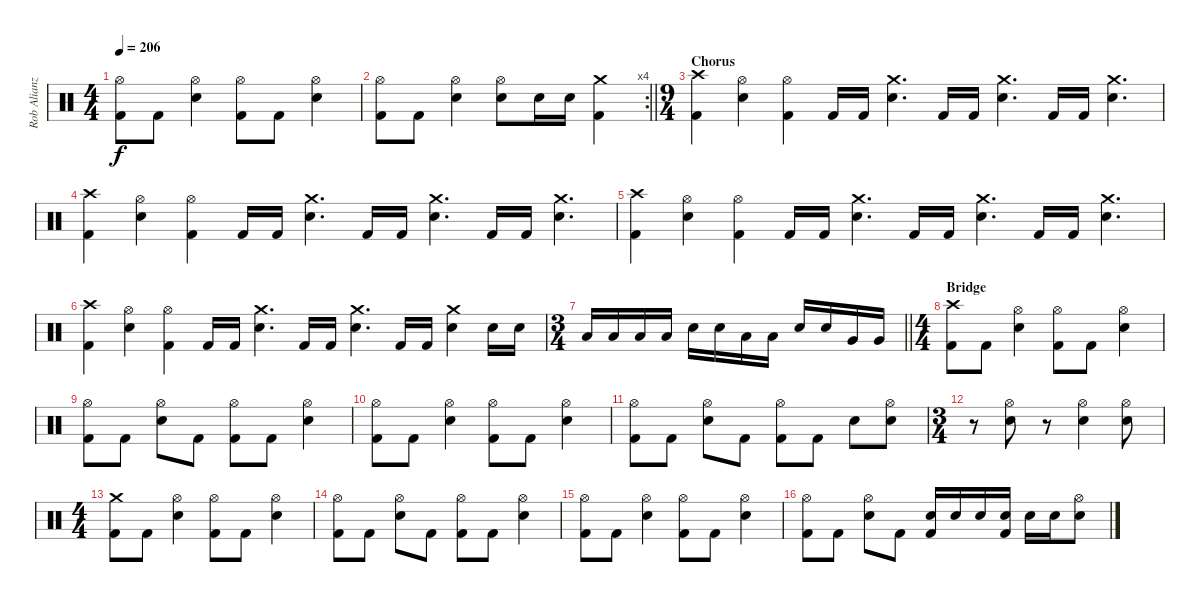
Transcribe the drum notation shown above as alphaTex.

\track ("Rob Alianz" "Rob Alianz") {instrument percussion}
\staff {score}
\articulation defaults
\ts (4 4)
\tempo 206
\clef neutral
\ks c
("Hi-Hat (open)" "Kick (hit) 2").8{dy f} "Kick (hit) 2".8 ("Hi-Hat (open)" "Electric Snare (hit)").4 ("Hi-Hat (open)" "Kick (hit) 2").8 "Kick (hit) 2".8 ("Hi-Hat (open)" "Electric Snare (hit)").4 |
\rc 4
\barLineRight lightlight
("Hi-Hat (open)" "Kick (hit) 2").8 "Kick (hit) 2".8 ("Hi-Hat (open)" "Electric Snare (hit)").4 ("Hi-Hat (open)" "Electric Snare (hit)").8 "Electric Snare (hit)".16 "Electric Snare (hit)".16 ("Crash medium (hit)" "Kick (hit) 2").4 |
\ts (9 4)
\section ("" "Chorus")
("Crash high (hit)" "Kick (hit) 2").4 ("Hi-Hat (open)" "Electric Snare (hit)").4 ("Hi-Hat (open)" "Kick (hit) 2").4 "Kick (hit) 2".16 "Kick (hit) 2".16 ("Crash medium (hit)" "Electric Snare (hit)").4{d} "Kick (hit) 2".16 "Kick (hit) 2".16 ("Crash medium (hit)" "Electric Snare (hit)").4{d} "Kick (hit) 2".16 "Kick (hit) 2".16 ("Crash medium (hit)" "Electric Snare (hit)").4{d} |
("Crash high (hit)" "Kick (hit) 2").4 ("Hi-Hat (open)" "Electric Snare (hit)").4 ("Hi-Hat (open)" "Kick (hit) 2").4 "Kick (hit) 2".16 "Kick (hit) 2".16 ("Crash medium (hit)" "Electric Snare (hit)").4{d} "Kick (hit) 2".16 "Kick (hit) 2".16 ("Crash medium (hit)" "Electric Snare (hit)").4{d} "Kick (hit) 2".16 "Kick (hit) 2".16 ("Crash medium (hit)" "Electric Snare (hit)").4{d} |
("Crash high (hit)" "Kick (hit) 2").4 ("Hi-Hat (open)" "Electric Snare (hit)").4 ("Hi-Hat (open)" "Kick (hit) 2").4 "Kick (hit) 2".16 "Kick (hit) 2".16 ("Crash medium (hit)" "Electric Snare (hit)").4{d} "Kick (hit) 2".16 "Kick (hit) 2".16 ("Crash medium (hit)" "Electric Snare (hit)").4{d} "Kick (hit) 2".16 "Kick (hit) 2".16 ("Crash medium (hit)" "Electric Snare (hit)").4{d} |
("Crash high (hit)" "Kick (hit) 2").4 ("Hi-Hat (open)" "Electric Snare (hit)").4 ("Hi-Hat (open)" "Kick (hit) 2").4 "Kick (hit) 2".16 "Kick (hit) 2".16 ("Crash medium (hit)" "Electric Snare (hit)").4{d} "Kick (hit) 2".16 "Kick (hit) 2".16 ("Crash medium (hit)" "Electric Snare (hit)").4{d} "Kick (hit) 2".16 "Kick (hit) 2".16 ("Crash medium (hit)" "Electric Snare (hit)").4 "Electric Snare (hit)".16 "Electric Snare (hit)".16 |
\ts (3 4)
\barLineRight lightlight "Low Tom (hit)".16 "Low Tom (hit)".16 "Low Tom (hit)".16 "Low Tom (hit)".16 "Electric Snare (hit)".16 "Electric Snare (hit)".16 "Low Tom (hit)".16 "Low Tom (hit)".16 "Electric Snare (hit)".16 "Electric Snare (hit)".16 "Very Low Tom (hit)".16 "Very Low Tom (hit)".16
|
\ts (4 4)
\section ("" "Bridge")
("Crash high (hit)" "Kick (hit) 2").8 "Kick (hit) 2".8 ("Hi-Hat (open)" "Electric Snare (hit)").4 ("Hi-Hat (open)" "Kick (hit) 2").8 "Kick (hit) 2".8 ("Hi-Hat (open)" "Electric Snare (hit)").4 |
("Hi-Hat (open)" "Kick (hit) 2").8 "Kick (hit) 2".8 ("Hi-Hat (open)" "Electric Snare (hit)").8 "Kick (hit) 2".8 ("Hi-Hat (open)" "Kick (hit) 2").8 "Kick (hit) 2".8 ("Hi-Hat (open)" "Electric Snare (hit)").4 |
("Hi-Hat (open)" "Kick (hit) 2").8 "Kick (hit) 2".8 ("Hi-Hat (open)" "Electric Snare (hit)").4 ("Hi-Hat (open)" "Kick (hit) 2").8 "Kick (hit) 2".8 ("Hi-Hat (open)" "Electric Snare (hit)").4 |
("Hi-Hat (open)" "Kick (hit) 2").8 "Kick (hit) 2".8 ("Hi-Hat (open)" "Electric Snare (hit)").8 "Kick (hit) 2".8 ("Hi-Hat (open)" "Kick (hit) 2").8 "Kick (hit) 2".8 "Electric Snare (hit)".8 ("Hi-Hat (open)" "Electric Snare (hit)").8 |
\ts (3 4)
r.8 ("Hi-Hat (open)" "Electric Snare (hit)").8 r.8 ("Hi-Hat (open)" "Electric Snare (hit)").4 ("Hi-Hat (open)" "Electric Snare (hit)").8 |
\ts (4 4)
("Crash medium (hit)" "Kick (hit) 2").8 "Kick (hit) 2".8 ("Hi-Hat (open)" "Electric Snare (hit)").4 ("Hi-Hat (open)" "Kick (hit) 2").8 "Kick (hit) 2".8 ("Hi-Hat (open)" "Electric Snare (hit)").4 |
("Hi-Hat (open)" "Kick (hit) 2").8 "Kick (hit) 2".8 ("Hi-Hat (open)" "Electric Snare (hit)").8 "Kick (hit) 2".8 ("Hi-Hat (open)" "Kick (hit) 2").8 "Kick (hit) 2".8 ("Hi-Hat (open)" "Electric Snare (hit)").4 |
("Hi-Hat (open)" "Kick (hit) 2").8 "Kick (hit) 2".8 ("Hi-Hat (open)" "Electric Snare (hit)").4 ("Hi-Hat (open)" "Kick (hit) 2").8 "Kick (hit) 2".8 ("Hi-Hat (open)" "Electric Snare (hit)").4 |
("Hi-Hat (open)" "Kick (hit) 2").8 "Kick (hit) 2".8 ("Hi-Hat (open)" "Electric Snare (hit)").8 "Kick (hit) 2".8 ("Electric Snare (hit)" "Kick (hit) 2").16 "Electric Snare (hit)".16 "Electric Snare (hit)".16 ("Electric Snare (hit)" "Kick (hit) 2").16 "Electric Snare (hit)".16 "Electric Snare (hit)".16 ("Hi-Hat (open)" "Electric Snare (hit)").8
